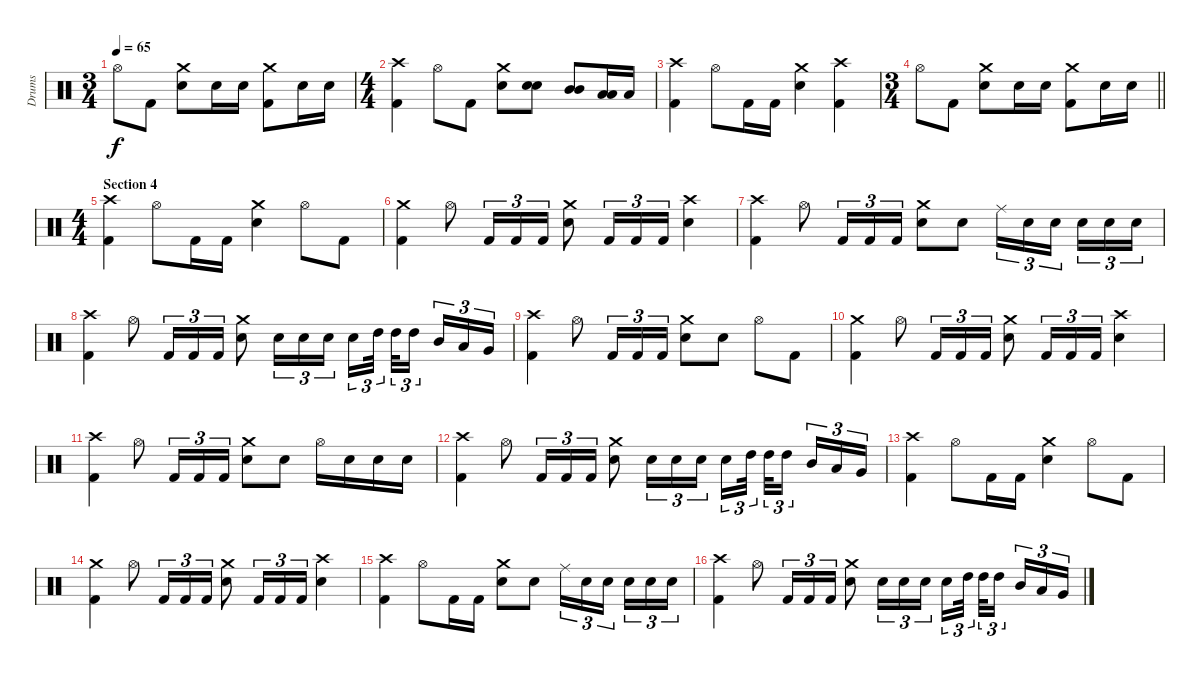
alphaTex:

\track ("Drums" "Drums") {instrument percussion}
\staff {score}
\articulation defaults
\ts (3 4)
\tempo 65
\clef neutral
\ks c "Hi-Hat (open)".8{dy f} "Kick (hit) 2".8
("Crash medium (hit)" "Electric Snare (hit)").8 "Electric Snare (hit)".16 "Electric Snare (hit)".16 ("Crash medium (hit)" "Kick (hit) 2").8 "Electric Snare (hit)".16 "Electric Snare (hit)".16 |
\ts (4 4)
("Crash high (hit)" "Kick (hit) 2").4 "Hi-Hat (open)".8 "Kick (hit) 2".8 ("Crash medium (hit)" "Electric Snare (hit)").8 ("Electric Snare (hit)" "Electric Snare (hit)").8{bu 60} ("Mid Tom (hit)" "Mid Tom (hit)").8{bu 60} ("Low Tom (hit)" "Low Tom (hit)").16{bu 60} "Low Tom (hit)".16 |
("Crash high (hit)" "Kick (hit) 2").4 "Hi-Hat (open)".8 "Kick (hit) 2".16 "Kick (hit) 2".16 ("Crash medium (hit)" "Electric Snare (hit)").4 ("Crash high (hit)" "Kick (hit) 2").4 |
\ts (3 4)
\barLineRight lightlight "Hi-Hat (open)".8 "Kick (hit) 2".8
("Crash medium (hit)" "Electric Snare (hit)").8 "Electric Snare (hit)".16 "Electric Snare (hit)".16 ("Crash medium (hit)" "Kick (hit) 2").8 "Electric Snare (hit)".16 "Electric Snare (hit)".16 |
\ts (4 4)
\section ("" "Section 4")
("Crash high (hit)" "Kick (hit) 2").4 "Hi-Hat (open)".8 "Kick (hit) 2".16 "Kick (hit) 2".16 ("Crash medium (hit)" "Electric Snare (hit)").4 "Hi-Hat (open)".8 "Kick (hit) 2".8 |
("Crash medium (hit)" "Kick (hit) 2").4 "Hi-Hat (open)".8 "Kick (hit) 2".16{tu (3 2)} "Kick (hit) 2".16{tu (3 2)} "Kick (hit) 2".16{tu (3 2)} ("Crash medium (hit)" "Electric Snare (hit)").8 "Kick (hit) 2".16{tu (3 2)} "Kick (hit) 2".16{tu (3 2)} "Kick (hit) 2".16{tu (3 2)} ("Crash high (hit)" "Electric Snare (hit)").4 |
("Crash high (hit)" "Kick (hit) 2").4 "Hi-Hat (open)".8 "Kick (hit) 2".16{tu (3 2)} "Kick (hit) 2".16{tu (3 2)} "Kick (hit) 2".16{tu (3 2)} ("Crash medium (hit)" "Electric Snare (hit)").8 "Electric Snare (hit)".8 "Ride (middle)".16{tu (3 2)} "Electric Snare (hit)".16{tu (3 2)} "Electric Snare (hit)".16{tu (3 2) beam splitsecondary} "Electric Snare (hit)".16{tu (3 2)} "Electric Snare (hit)".16{tu (3 2)} "Electric Snare (hit)".16{tu (3 2)} |
("Crash high (hit)" "Kick (hit) 2").4 "Hi-Hat (open)".8 "Kick (hit) 2".16{tu (3 2)} "Kick (hit) 2".16{tu (3 2)} "Kick (hit) 2".16{tu (3 2)} ("Crash medium (hit)" "Electric Snare (hit)").8 "Electric Snare (hit)".16{tu (3 2)} "Electric Snare (hit)".16{tu (3 2)} "Electric Snare (hit)".16{tu (3 2)} "Electric Snare (hit)".16{tu (3 2)} "High Tom (hit)".32{tu (3 2) beam splitsecondary} "High Tom (hit)".32{tu (3 2)} "High Tom (hit)".16{tu (3 2) beam splitsecondary} "Mid Tom (hit)".16{tu (3 2)} "Low Tom (hit)".16{tu (3 2)} "Very Low Tom (hit)".16{tu (3 2)} |
("Crash high (hit)" "Kick (hit) 2").4 "Hi-Hat (open)".8 "Kick (hit) 2".16{tu (3 2)} "Kick (hit) 2".16{tu (3 2)} "Kick (hit) 2".16{tu (3 2)} ("Crash medium (hit)" "Electric Snare (hit)").8 "Electric Snare (hit)".8 "Hi-Hat (open)".8 "Kick (hit) 2".8 |
("Crash medium (hit)" "Kick (hit) 2").4 "Hi-Hat (open)".8 "Kick (hit) 2".16{tu (3 2)} "Kick (hit) 2".16{tu (3 2)} "Kick (hit) 2".16{tu (3 2)} ("Crash medium (hit)" "Electric Snare (hit)").8 "Kick (hit) 2".16{tu (3 2)} "Kick (hit) 2".16{tu (3 2)} "Kick (hit) 2".16{tu (3 2)} ("Crash high (hit)" "Electric Snare (hit)").4 |
("Crash high (hit)" "Kick (hit) 2").4 "Hi-Hat (open)".8 "Kick (hit) 2".16{tu (3 2)} "Kick (hit) 2".16{tu (3 2)} "Kick (hit) 2".16{tu (3 2)} ("Crash medium (hit)" "Electric Snare (hit)").8 "Electric Snare (hit)".8 "Hi-Hat (open)".16 "Electric Snare (hit)".16 "Electric Snare (hit)".16 "Electric Snare (hit)".16 |
("Crash high (hit)" "Kick (hit) 2").4 "Hi-Hat (open)".8 "Kick (hit) 2".16{tu (3 2)} "Kick (hit) 2".16{tu (3 2)} "Kick (hit) 2".16{tu (3 2)} ("Crash medium (hit)" "Electric Snare (hit)").8 "Electric Snare (hit)".16{tu (3 2)} "Electric Snare (hit)".16{tu (3 2)} "Electric Snare (hit)".16{tu (3 2)} "Electric Snare (hit)".16{tu (3 2)} "High Tom (hit)".32{tu (3 2) beam splitsecondary} "High Tom (hit)".32{tu (3 2)} "High Tom (hit)".16{tu (3 2) beam splitsecondary} "Mid Tom (hit)".16{tu (3 2)} "Low Tom (hit)".16{tu (3 2)} "Very Low Tom (hit)".16{tu (3 2)} |
("Crash high (hit)" "Kick (hit) 2").4 "Hi-Hat (open)".8 "Kick (hit) 2".16 "Kick (hit) 2".16 ("Crash medium (hit)" "Electric Snare (hit)").4 "Hi-Hat (open)".8 "Kick (hit) 2".8 |
("Crash medium (hit)" "Kick (hit) 2").4 "Hi-Hat (open)".8 "Kick (hit) 2".16{tu (3 2)} "Kick (hit) 2".16{tu (3 2)} "Kick (hit) 2".16{tu (3 2)} ("Crash medium (hit)" "Electric Snare (hit)").8 "Kick (hit) 2".16{tu (3 2)} "Kick (hit) 2".16{tu (3 2)} "Kick (hit) 2".16{tu (3 2)} ("Crash high (hit)" "Electric Snare (hit)").4 |
("Crash high (hit)" "Kick (hit) 2").4 "Hi-Hat (open)".8 "Kick (hit) 2".16 "Kick (hit) 2".16 ("Crash medium (hit)" "Electric Snare (hit)").8 "Electric Snare (hit)".8 "Ride (middle)".16{tu (3 2)} "Electric Snare (hit)".16{tu (3 2)} "Electric Snare (hit)".16{tu (3 2) beam splitsecondary} "Electric Snare (hit)".16{tu (3 2)} "Electric Snare (hit)".16{tu (3 2)} "Electric Snare (hit)".16{tu (3 2)} |
("Crash high (hit)" "Kick (hit) 2").4 "Hi-Hat (open)".8 "Kick (hit) 2".16{tu (3 2)} "Kick (hit) 2".16{tu (3 2)} "Kick (hit) 2".16{tu (3 2)} ("Crash medium (hit)" "Electric Snare (hit)").8 "Electric Snare (hit)".16{tu (3 2)} "Electric Snare (hit)".16{tu (3 2)} "Electric Snare (hit)".16{tu (3 2)} "Electric Snare (hit)".16{tu (3 2)} "High Tom (hit)".32{tu (3 2) beam splitsecondary} "High Tom (hit)".32{tu (3 2)} "High Tom (hit)".16{tu (3 2) beam splitsecondary} "Mid Tom (hit)".16{tu (3 2)} "Low Tom (hit)".16{tu (3 2)} "Very Low Tom (hit)".16{tu (3 2)}
